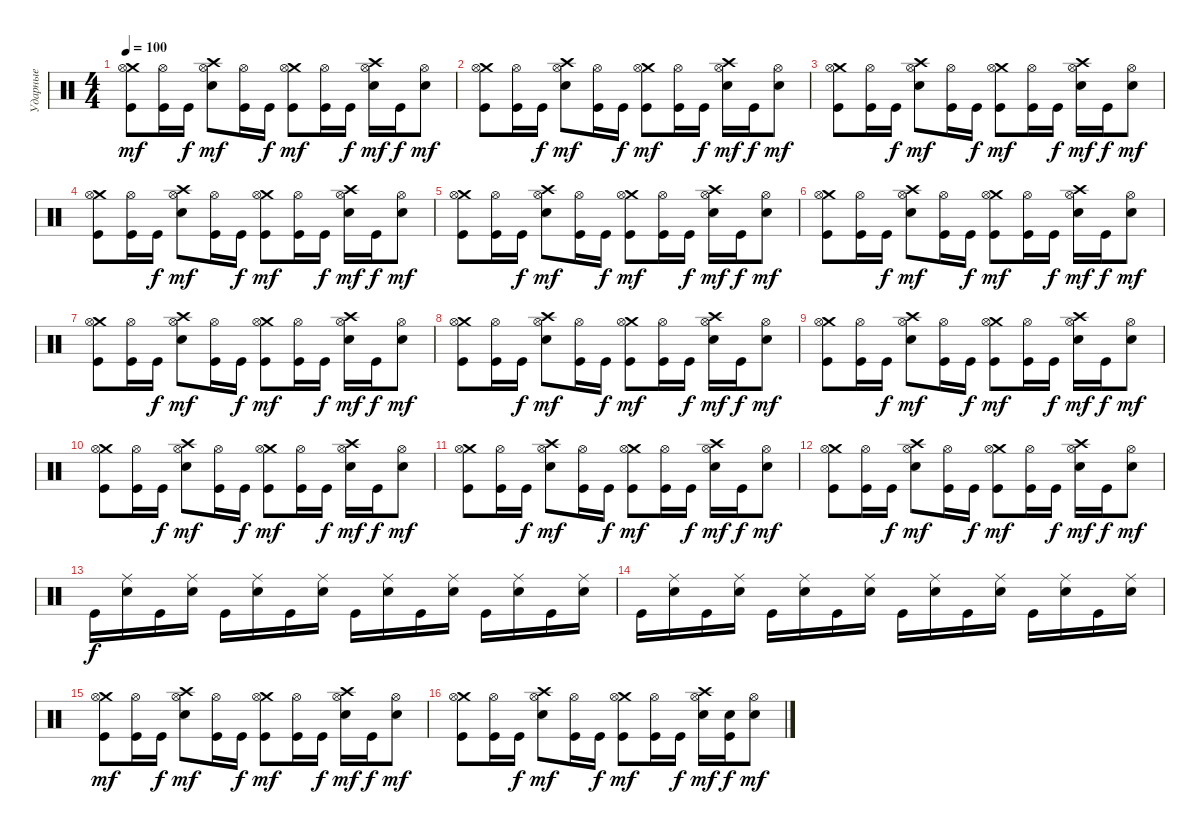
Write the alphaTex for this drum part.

\track ("Ударные" "Ударные") {instrument percussion}
\staff {score}
\articulation defaults
\ts (4 4)
\tempo 100
\clef neutral
\ks c
("Crash medium (hit)" "Hi-Hat (open)" "Kick (hit)").8{dy mf} ("Hi-Hat (open)" "Kick (hit)").16 "Kick (hit)".16{dy f} ("Crash high (hit)" "Hi-Hat (open)" "Electric Snare (hit)").8{dy mf} ("Hi-Hat (open)" "Kick (hit)").16 "Kick (hit)".16{dy f} ("Crash medium (hit)" "Hi-Hat (open)" "Kick (hit)").8{dy mf} ("Hi-Hat (open)" "Kick (hit)").16 "Kick (hit)".16{dy f} ("Crash high (hit)" "Hi-Hat (open)" "Electric Snare (hit)").16{dy mf} "Kick (hit)".16{dy f} ("Hi-Hat (open)" "Electric Snare (hit)").8{dy mf} |
("Crash medium (hit)" "Hi-Hat (open)" "Kick (hit)").8 ("Hi-Hat (open)" "Kick (hit)").16 "Kick (hit)".16{dy f} ("Crash high (hit)" "Hi-Hat (open)" "Electric Snare (hit)").8{dy mf} ("Hi-Hat (open)" "Kick (hit)").16 "Kick (hit)".16{dy f} ("Crash medium (hit)" "Hi-Hat (open)" "Kick (hit)").8{dy mf} ("Hi-Hat (open)" "Kick (hit)").16 "Kick (hit)".16{dy f} ("Crash high (hit)" "Hi-Hat (open)" "Electric Snare (hit)").16{dy mf} "Kick (hit)".16{dy f} ("Hi-Hat (open)" "Electric Snare (hit)").8{dy mf} |
("Crash medium (hit)" "Hi-Hat (open)" "Kick (hit)").8 ("Hi-Hat (open)" "Kick (hit)").16 "Kick (hit)".16{dy f} ("Crash high (hit)" "Hi-Hat (open)" "Electric Snare (hit)").8{dy mf} ("Hi-Hat (open)" "Kick (hit)").16 "Kick (hit)".16{dy f} ("Crash medium (hit)" "Hi-Hat (open)" "Kick (hit)").8{dy mf} ("Hi-Hat (open)" "Kick (hit)").16 "Kick (hit)".16{dy f} ("Crash high (hit)" "Hi-Hat (open)" "Electric Snare (hit)").16{dy mf} "Kick (hit)".16{dy f} ("Hi-Hat (open)" "Electric Snare (hit)").8{dy mf} |
("Crash medium (hit)" "Hi-Hat (open)" "Kick (hit)").8 ("Hi-Hat (open)" "Kick (hit)").16 "Kick (hit)".16{dy f} ("Crash high (hit)" "Hi-Hat (open)" "Electric Snare (hit)").8{dy mf} ("Hi-Hat (open)" "Kick (hit)").16 "Kick (hit)".16{dy f} ("Crash medium (hit)" "Hi-Hat (open)" "Kick (hit)").8{dy mf} ("Hi-Hat (open)" "Kick (hit)").16 "Kick (hit)".16{dy f} ("Crash high (hit)" "Hi-Hat (open)" "Electric Snare (hit)").16{dy mf} "Kick (hit)".16{dy f} ("Hi-Hat (open)" "Electric Snare (hit)").8{dy mf} |
("Crash medium (hit)" "Hi-Hat (open)" "Kick (hit)").8 ("Hi-Hat (open)" "Kick (hit)").16 "Kick (hit)".16{dy f} ("Crash high (hit)" "Hi-Hat (open)" "Electric Snare (hit)").8{dy mf} ("Hi-Hat (open)" "Kick (hit)").16 "Kick (hit)".16{dy f} ("Crash medium (hit)" "Hi-Hat (open)" "Kick (hit)").8{dy mf} ("Hi-Hat (open)" "Kick (hit)").16 "Kick (hit)".16{dy f} ("Crash high (hit)" "Hi-Hat (open)" "Electric Snare (hit)").16{dy mf} "Kick (hit)".16{dy f} ("Hi-Hat (open)" "Electric Snare (hit)").8{dy mf} |
("Crash medium (hit)" "Hi-Hat (open)" "Kick (hit)").8 ("Hi-Hat (open)" "Kick (hit)").16 "Kick (hit)".16{dy f} ("Crash high (hit)" "Hi-Hat (open)" "Electric Snare (hit)").8{dy mf} ("Hi-Hat (open)" "Kick (hit)").16 "Kick (hit)".16{dy f} ("Crash medium (hit)" "Hi-Hat (open)" "Kick (hit)").8{dy mf} ("Hi-Hat (open)" "Kick (hit)").16 "Kick (hit)".16{dy f} ("Crash high (hit)" "Hi-Hat (open)" "Electric Snare (hit)").16{dy mf} "Kick (hit)".16{dy f} ("Hi-Hat (open)" "Electric Snare (hit)").8{dy mf} |
("Crash medium (hit)" "Hi-Hat (open)" "Kick (hit)").8 ("Hi-Hat (open)" "Kick (hit)").16 "Kick (hit)".16{dy f} ("Crash high (hit)" "Hi-Hat (open)" "Electric Snare (hit)").8{dy mf} ("Hi-Hat (open)" "Kick (hit)").16 "Kick (hit)".16{dy f} ("Crash medium (hit)" "Hi-Hat (open)" "Kick (hit)").8{dy mf} ("Hi-Hat (open)" "Kick (hit)").16 "Kick (hit)".16{dy f} ("Crash high (hit)" "Hi-Hat (open)" "Electric Snare (hit)").16{dy mf} "Kick (hit)".16{dy f} ("Hi-Hat (open)" "Electric Snare (hit)").8{dy mf} |
("Crash medium (hit)" "Hi-Hat (open)" "Kick (hit)").8 ("Hi-Hat (open)" "Kick (hit)").16 "Kick (hit)".16{dy f} ("Crash high (hit)" "Hi-Hat (open)" "Electric Snare (hit)").8{dy mf} ("Hi-Hat (open)" "Kick (hit)").16 "Kick (hit)".16{dy f} ("Crash medium (hit)" "Hi-Hat (open)" "Kick (hit)").8{dy mf} ("Hi-Hat (open)" "Kick (hit)").16 "Kick (hit)".16{dy f} ("Crash high (hit)" "Hi-Hat (open)" "Electric Snare (hit)").16{dy mf} "Kick (hit)".16{dy f} ("Hi-Hat (open)" "Electric Snare (hit)").8{dy mf} |
("Crash medium (hit)" "Hi-Hat (open)" "Kick (hit)").8 ("Hi-Hat (open)" "Kick (hit)").16 "Kick (hit)".16{dy f} ("Crash high (hit)" "Hi-Hat (open)" "Electric Snare (hit)").8{dy mf} ("Hi-Hat (open)" "Kick (hit)").16 "Kick (hit)".16{dy f} ("Crash medium (hit)" "Hi-Hat (open)" "Kick (hit)").8{dy mf} ("Hi-Hat (open)" "Kick (hit)").16 "Kick (hit)".16{dy f} ("Crash high (hit)" "Hi-Hat (open)" "Electric Snare (hit)").16{dy mf} "Kick (hit)".16{dy f} ("Hi-Hat (open)" "Electric Snare (hit)").8{dy mf} |
("Crash medium (hit)" "Hi-Hat (open)" "Kick (hit)").8 ("Hi-Hat (open)" "Kick (hit)").16 "Kick (hit)".16{dy f} ("Crash high (hit)" "Hi-Hat (open)" "Electric Snare (hit)").8{dy mf} ("Hi-Hat (open)" "Kick (hit)").16 "Kick (hit)".16{dy f} ("Crash medium (hit)" "Hi-Hat (open)" "Kick (hit)").8{dy mf} ("Hi-Hat (open)" "Kick (hit)").16 "Kick (hit)".16{dy f} ("Crash high (hit)" "Hi-Hat (open)" "Electric Snare (hit)").16{dy mf} "Kick (hit)".16{dy f} ("Hi-Hat (open)" "Electric Snare (hit)").8{dy mf} |
("Crash medium (hit)" "Hi-Hat (open)" "Kick (hit)").8 ("Hi-Hat (open)" "Kick (hit)").16 "Kick (hit)".16{dy f} ("Crash high (hit)" "Hi-Hat (open)" "Electric Snare (hit)").8{dy mf} ("Hi-Hat (open)" "Kick (hit)").16 "Kick (hit)".16{dy f} ("Crash medium (hit)" "Hi-Hat (open)" "Kick (hit)").8{dy mf} ("Hi-Hat (open)" "Kick (hit)").16 "Kick (hit)".16{dy f} ("Crash high (hit)" "Hi-Hat (open)" "Electric Snare (hit)").16{dy mf} "Kick (hit)".16{dy f} ("Hi-Hat (open)" "Electric Snare (hit)").8{dy mf} |
("Crash medium (hit)" "Hi-Hat (open)" "Kick (hit)").8 ("Hi-Hat (open)" "Kick (hit)").16 "Kick (hit)".16{dy f} ("Crash high (hit)" "Hi-Hat (open)" "Electric Snare (hit)").8{dy mf} ("Hi-Hat (open)" "Kick (hit)").16 "Kick (hit)".16{dy f} ("Crash medium (hit)" "Hi-Hat (open)" "Kick (hit)").8{dy mf} ("Hi-Hat (open)" "Kick (hit)").16 "Kick (hit)".16{dy f} ("Crash high (hit)" "Hi-Hat (open)" "Electric Snare (hit)").16{dy mf} "Kick (hit)".16{dy f} ("Hi-Hat (open)" "Electric Snare (hit)").8{dy mf} |
"Kick (hit)".16{dy f} ("Ride (middle)" "Electric Snare (hit)").16 "Kick (hit)".16 ("Ride (middle)" "Electric Snare (hit)").16 "Kick (hit)".16 ("Ride (middle)" "Electric Snare (hit)").16 "Kick (hit)".16 ("Ride (middle)" "Electric Snare (hit)").16 "Kick (hit)".16 ("Ride (middle)" "Electric Snare (hit)").16 "Kick (hit)".16 ("Ride (middle)" "Electric Snare (hit)").16 "Kick (hit)".16 ("Ride (middle)" "Electric Snare (hit)").16 "Kick (hit)".16 ("Ride (middle)" "Electric Snare (hit)").16 |
"Kick (hit)".16 ("Ride (middle)" "Electric Snare (hit)").16 "Kick (hit)".16 ("Ride (middle)" "Electric Snare (hit)").16 "Kick (hit)".16 ("Ride (middle)" "Electric Snare (hit)").16 "Kick (hit)".16 ("Ride (middle)" "Electric Snare (hit)").16 "Kick (hit)".16 ("Ride (middle)" "Electric Snare (hit)").16 "Kick (hit)".16 ("Ride (middle)" "Electric Snare (hit)").16 "Kick (hit)".16 ("Ride (middle)" "Electric Snare (hit)").16 "Kick (hit)".16 ("Ride (middle)" "Electric Snare (hit)").16 |
("Crash medium (hit)" "Hi-Hat (open)" "Kick (hit)").8{dy mf} ("Hi-Hat (open)" "Kick (hit)").16 "Kick (hit)".16{dy f} ("Crash high (hit)" "Hi-Hat (open)" "Electric Snare (hit)").8{dy mf} ("Hi-Hat (open)" "Kick (hit)").16 "Kick (hit)".16{dy f} ("Crash medium (hit)" "Hi-Hat (open)" "Kick (hit)").8{dy mf} ("Hi-Hat (open)" "Kick (hit)").16 "Kick (hit)".16{dy f} ("Crash high (hit)" "Hi-Hat (open)" "Electric Snare (hit)").16{dy mf} "Kick (hit)".16{dy f} ("Hi-Hat (open)" "Electric Snare (hit)").8{dy mf} |
("Crash medium (hit)" "Hi-Hat (open)" "Kick (hit)").8 ("Hi-Hat (open)" "Kick (hit)").16 "Kick (hit)".16{dy f} ("Crash high (hit)" "Hi-Hat (open)" "Electric Snare (hit)").8{dy mf} ("Hi-Hat (open)" "Kick (hit)").16 "Kick (hit)".16{dy f} ("Crash medium (hit)" "Hi-Hat (open)" "Kick (hit)").8{dy mf} ("Hi-Hat (open)" "Kick (hit)").16 "Kick (hit)".16{dy f} ("Crash high (hit)" "Hi-Hat (open)" "Electric Snare (hit)").16{dy mf} ("Electric Snare (hit)" "Kick (hit)").16{dy f} ("Hi-Hat (open)" "Electric Snare (hit)").8{dy mf}
